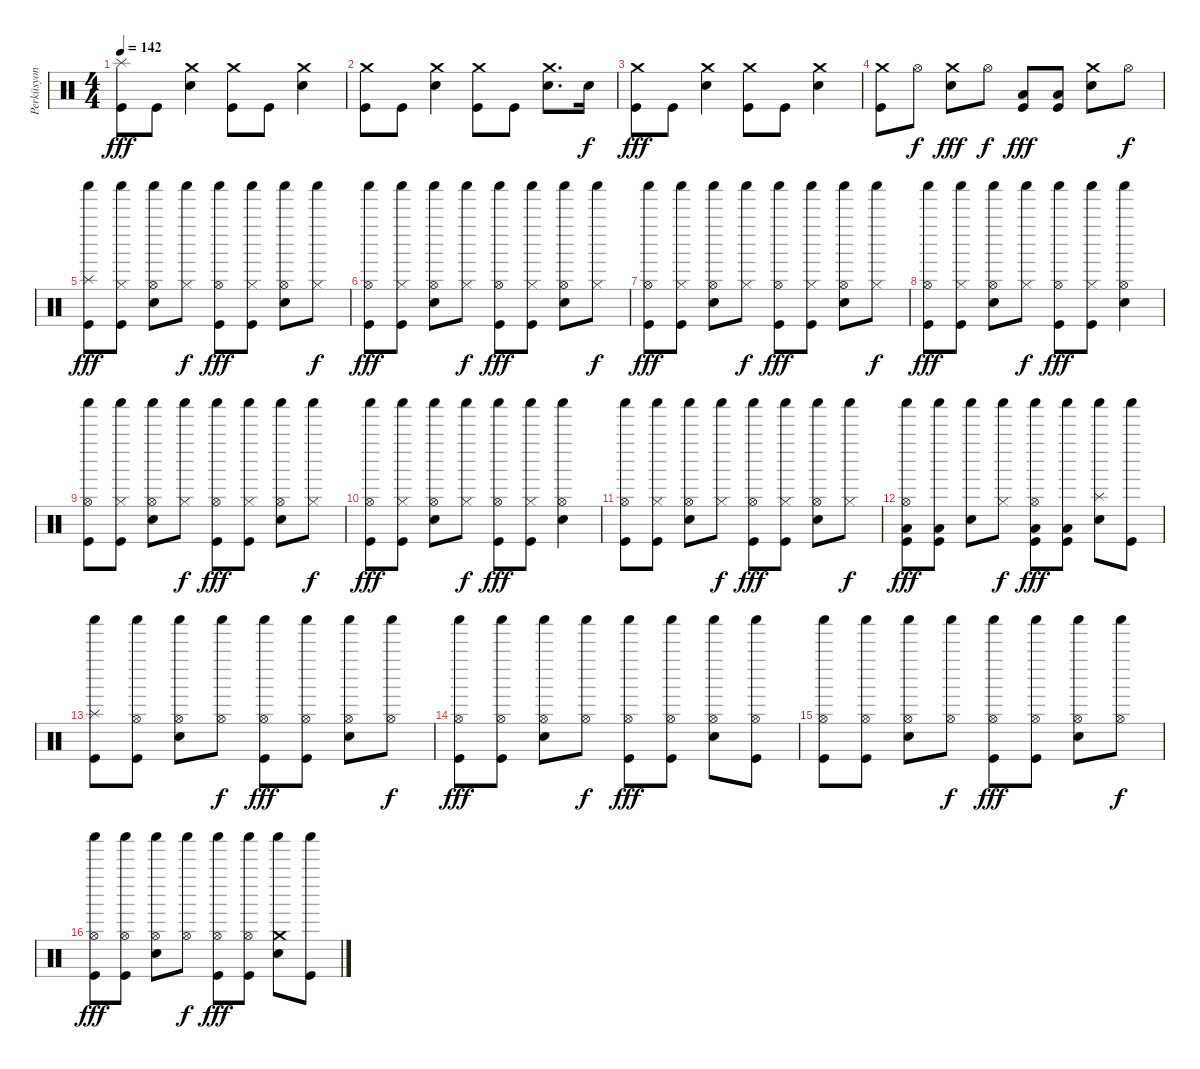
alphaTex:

\track ("Perküsyon" "Perküsyon") {instrument percussion}
\staff {score}
\articulation defaults
\ts (4 4)
\tempo 142
\clef neutral
\ks c
("Kick (hit)" "Splash (hit)").8{dy fff} "Kick (hit)".8 ("Snare (hit) 2" "Crash medium (hit)").4 ("Kick (hit)" "Crash medium (hit)").8 "Kick (hit)".8 ("Snare (hit) 2" "Crash medium (hit)").4 |
("Kick (hit)" "Crash medium (hit)").8 "Kick (hit)".8 ("Snare (hit) 2" "Crash medium (hit)").4 ("Kick (hit)" "Crash medium (hit)").8 "Kick (hit)".8 ("Snare (hit) 2" "Crash medium (hit)").8{d} "Snare (hit) 2".16{dy f} |
("Kick (hit)" "Crash medium (hit)").8{dy fff} "Kick (hit)".8 ("Snare (hit) 2" "Crash medium (hit)").4 ("Kick (hit)" "Crash medium (hit)").8 "Kick (hit)".8 ("Snare (hit) 2" "Crash medium (hit)").4 |
("Kick (hit)" "Crash medium (hit)").8 "Hi-Hat (open)".8{dy f} ("Snare (hit) 2" "Crash medium (hit)").8{dy fff} "Hi-Hat (open)".8{dy f} ("Kick (hit)" "Low Floor Tom (hit)").8{dy fff} ("Kick (hit)" "Low Floor Tom (hit)").8 ("Snare (hit) 2" "Crash medium (hit)").8 "Hi-Hat (open)".8{dy f} |
("Kick (hit)" "Splash (hit)" "Shaker (hit)").8{dy fff} ("Kick (hit)" "Hi-Hat (closed)" "Shaker (hit)").8 ("Snare (hit) 2" "Hi-Hat (open)" "Shaker (hit)").8 ("Hi-Hat (closed)" "Shaker (hit)").8{dy f} ("Kick (hit)" "Hi-Hat (open)" "Shaker (hit)").8{dy fff} ("Kick (hit)" "Hi-Hat (closed)" "Shaker (hit)").8 ("Snare (hit) 2" "Hi-Hat (open)" "Shaker (hit)").8 ("Hi-Hat (closed)" "Shaker (hit)").8{dy f} |
("Kick (hit)" "Hi-Hat (open)" "Shaker (hit)").8{dy fff} ("Kick (hit)" "Hi-Hat (closed)" "Shaker (hit)").8 ("Snare (hit) 2" "Hi-Hat (open)" "Shaker (hit)").8 ("Hi-Hat (closed)" "Shaker (hit)").8{dy f} ("Kick (hit)" "Hi-Hat (open)" "Shaker (hit)").8{dy fff} ("Kick (hit)" "Hi-Hat (closed)" "Shaker (hit)").8 ("Snare (hit) 2" "Hi-Hat (open)" "Shaker (hit)").8 ("Hi-Hat (closed)" "Shaker (hit)").8{dy f} |
("Kick (hit)" "Hi-Hat (open)" "Shaker (hit)").8{dy fff} ("Kick (hit)" "Hi-Hat (closed)" "Shaker (hit)").8 ("Snare (hit) 2" "Hi-Hat (open)" "Shaker (hit)").8 ("Hi-Hat (closed)" "Shaker (hit)").8{dy f} ("Kick (hit)" "Hi-Hat (open)" "Shaker (hit)").8{dy fff} ("Kick (hit)" "Hi-Hat (closed)" "Shaker (hit)").8 ("Snare (hit) 2" "Hi-Hat (open)" "Shaker (hit)").8 ("Hi-Hat (closed)" "Shaker (hit)").8{dy f} |
("Kick (hit)" "Hi-Hat (open)" "Shaker (hit)").8{dy fff} ("Kick (hit)" "Hi-Hat (closed)" "Shaker (hit)").8 ("Snare (hit) 2" "Hi-Hat (open)" "Shaker (hit)").8 ("Hi-Hat (closed)" "Shaker (hit)").8{dy f} ("Kick (hit)" "Hi-Hat (open)" "Shaker (hit)").8{dy fff} ("Kick (hit)" "Hi-Hat (closed)" "Shaker (hit)").8 ("Snare (hit) 2" "Hi-Hat (open)" "Shaker (hit)").4 |
("Kick (hit)" "Hi-Hat (open)" "Shaker (hit)").8 ("Kick (hit)" "Hi-Hat (closed)" "Shaker (hit)").8 ("Snare (hit) 2" "Hi-Hat (open)" "Shaker (hit)").8 ("Hi-Hat (closed)" "Shaker (hit)").8{dy f} ("Kick (hit)" "Hi-Hat (open)" "Shaker (hit)").8{dy fff} ("Kick (hit)" "Hi-Hat (closed)" "Shaker (hit)").8 ("Snare (hit) 2" "Hi-Hat (open)" "Shaker (hit)").8 ("Hi-Hat (closed)" "Shaker (hit)").8{dy f} |
("Kick (hit)" "Hi-Hat (open)" "Shaker (hit)").8{dy fff} ("Kick (hit)" "Hi-Hat (closed)" "Shaker (hit)").8 ("Snare (hit) 2" "Hi-Hat (open)" "Shaker (hit)").8 ("Hi-Hat (closed)" "Shaker (hit)").8{dy f} ("Kick (hit)" "Hi-Hat (open)" "Shaker (hit)").8{dy fff} ("Kick (hit)" "Hi-Hat (closed)" "Shaker (hit)").8 ("Snare (hit) 2" "Hi-Hat (open)" "Shaker (hit)").4 |
("Kick (hit)" "Hi-Hat (open)" "Shaker (hit)").8 ("Kick (hit)" "Hi-Hat (closed)" "Shaker (hit)").8 ("Snare (hit) 2" "Hi-Hat (open)" "Shaker (hit)").8 ("Hi-Hat (closed)" "Shaker (hit)").8{dy f} ("Kick (hit)" "Hi-Hat (open)" "Shaker (hit)").8{dy fff} ("Kick (hit)" "Hi-Hat (closed)" "Shaker (hit)").8 ("Snare (hit) 2" "Hi-Hat (open)" "Shaker (hit)").8 ("Hi-Hat (closed)" "Shaker (hit)").8{dy f} |
("Kick (hit)" "Hi-Hat (open)" "Low Floor Tom (hit)" "Shaker (hit)").8{dy fff} ("Kick (hit)" "Low Floor Tom (hit)" "Shaker (hit)").8 ("Snare (hit) 2" "Shaker (hit)").8 ("Hi-Hat (closed)" "Shaker (hit)").8{dy f} ("Kick (hit)" "Hi-Hat (open)" "Low Floor Tom (hit)" "Shaker (hit)").8{dy fff} ("Kick (hit)" "Low Floor Tom (hit)" "Shaker (hit)").8 ("Snare (hit) 2" "Splash (hit)" "Shaker (hit)").8 ("Kick (hit)" "Shaker (hit)").8 |
("Kick (hit)" "Splash (hit)" "Shaker (hit)").8 ("Kick (hit)" "Hi-Hat (open)" "Shaker (hit)").8 ("Snare (hit) 2" "Hi-Hat (open)" "Shaker (hit)").8 ("Hi-Hat (open)" "Shaker (hit)").8{dy f} ("Kick (hit)" "Hi-Hat (open)" "Shaker (hit)").8{dy fff} ("Kick (hit)" "Hi-Hat (open)" "Shaker (hit)").8 ("Snare (hit) 2" "Hi-Hat (open)" "Shaker (hit)").8 ("Hi-Hat (open)" "Shaker (hit)").8{dy f} |
("Kick (hit)" "Hi-Hat (open)" "Shaker (hit)").8{dy fff} ("Kick (hit)" "Hi-Hat (open)" "Shaker (hit)").8 ("Snare (hit) 2" "Hi-Hat (open)" "Shaker (hit)").8 ("Hi-Hat (open)" "Shaker (hit)").8{dy f} ("Kick (hit)" "Hi-Hat (open)" "Shaker (hit)").8{dy fff} ("Kick (hit)" "Hi-Hat (open)" "Shaker (hit)").8 ("Snare (hit) 2" "Hi-Hat (open)" "Shaker (hit)").8 ("Kick (hit)" "Hi-Hat (open)" "Shaker (hit)").8 |
("Kick (hit)" "Hi-Hat (open)" "Shaker (hit)").8 ("Kick (hit)" "Hi-Hat (open)" "Shaker (hit)").8 ("Snare (hit) 2" "Hi-Hat (open)" "Shaker (hit)").8 ("Hi-Hat (open)" "Shaker (hit)").8{dy f} ("Kick (hit)" "Hi-Hat (open)" "Shaker (hit)").8{dy fff} ("Kick (hit)" "Hi-Hat (open)" "Shaker (hit)").8 ("Snare (hit) 2" "Hi-Hat (open)" "Shaker (hit)").8 ("Hi-Hat (open)" "Shaker (hit)").8{dy f} |
("Kick (hit)" "Hi-Hat (open)" "Shaker (hit)").8{dy fff} ("Kick (hit)" "Hi-Hat (open)" "Shaker (hit)").8 ("Snare (hit) 2" "Hi-Hat (open)" "Shaker (hit)").8 ("Hi-Hat (open)" "Shaker (hit)").8{dy f} ("Kick (hit)" "Hi-Hat (open)" "Shaker (hit)").8{dy fff} ("Kick (hit)" "Hi-Hat (open)" "Shaker (hit)").8 ("Snare (hit) 2" "Crash medium (hit)" "Shaker (hit)").8 ("Kick (hit)" "Shaker (hit)").8
